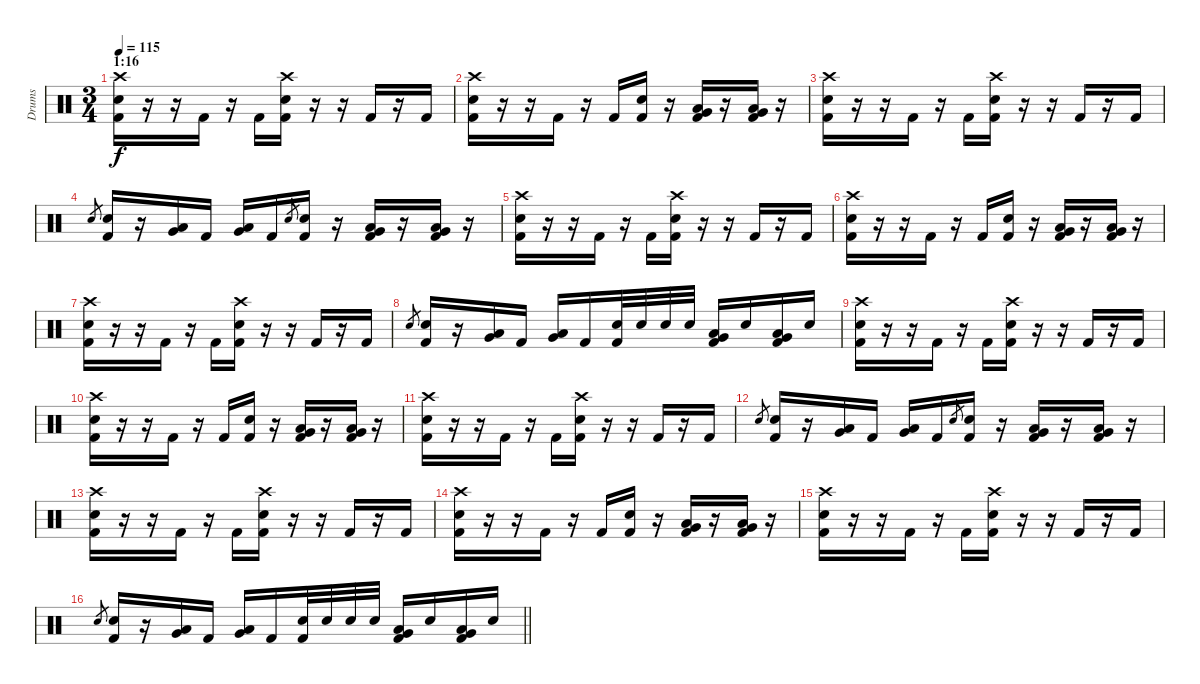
\track ("Drums" "Drums") {instrument percussion}
\staff {score}
\articulation defaults
\ts (3 4)
\section ("" "1:16")
\tempo 115
\clef neutral
\ks c
("Crash high (hit)" "Electric Snare (hit)" "Kick (hit) 2").16{dy f} r.16 r.16 "Kick (hit) 2".16 r.16 "Kick (hit) 2".16 ("Crash high (hit)" "Electric Snare (hit)" "Kick (hit) 2").16 r.16 r.16 "Kick (hit) 2".16 r.16 "Kick (hit) 2".16 |
("Crash high (hit)" "Electric Snare (hit)" "Kick (hit) 2").16 r.16 r.16 "Kick (hit) 2".16 r.16 "Kick (hit) 2".16 ("Electric Snare (hit)" "Kick (hit) 2").16 r.16 ("Low Tom (hit)" "Very Low Tom (hit)" "Kick (hit) 2").16 r.16 ("Very Low Tom (hit)" "Low Floor Tom (hit)" "Kick (hit) 2").16 r.16 |
("Crash high (hit)" "Electric Snare (hit)" "Kick (hit) 2").16 r.16 r.16 "Kick (hit) 2".16 r.16 "Kick (hit) 2".16 ("Crash high (hit)" "Electric Snare (hit)" "Kick (hit) 2").16 r.16 r.16 "Kick (hit) 2".16 r.16 "Kick (hit) 2".16 |
"Electric Snare (hit)".8{gr} ("Electric Snare (hit)" "Kick (hit) 2").16 r.16 ("Low Tom (hit)" "Very Low Tom (hit)").16 "Kick (hit) 2".16 ("Low Floor Tom (hit)" "Very Low Tom (hit)").16 "Kick (hit) 2".16 "Electric Snare (hit)".8{gr} ("Electric Snare (hit)" "Kick (hit) 2").16 r.16 ("Low Tom (hit)" "Very Low Tom (hit)" "Kick (hit) 2").16 r.16 ("Very Low Tom (hit)" "Low Floor Tom (hit)" "Kick (hit) 2").16 r.16 |
("Crash high (hit)" "Electric Snare (hit)" "Kick (hit) 2").16 r.16 r.16 "Kick (hit) 2".16 r.16 "Kick (hit) 2".16 ("Crash high (hit)" "Electric Snare (hit)" "Kick (hit) 2").16 r.16 r.16 "Kick (hit) 2".16 r.16 "Kick (hit) 2".16 |
("Crash high (hit)" "Electric Snare (hit)" "Kick (hit) 2").16 r.16 r.16 "Kick (hit) 2".16 r.16 "Kick (hit) 2".16 ("Electric Snare (hit)" "Kick (hit) 2").16 r.16 ("Low Tom (hit)" "Very Low Tom (hit)" "Kick (hit) 2").16 r.16 ("Very Low Tom (hit)" "Low Floor Tom (hit)" "Kick (hit) 2").16 r.16 |
("Crash high (hit)" "Electric Snare (hit)" "Kick (hit) 2").16 r.16 r.16 "Kick (hit) 2".16 r.16 "Kick (hit) 2".16 ("Crash high (hit)" "Electric Snare (hit)" "Kick (hit) 2").16 r.16 r.16 "Kick (hit) 2".16 r.16 "Kick (hit) 2".16 |
"Electric Snare (hit)".8{gr} ("Electric Snare (hit)" "Kick (hit) 2").16 r.16 ("Low Tom (hit)" "Very Low Tom (hit)").16 "Kick (hit) 2".16 ("Low Floor Tom (hit)" "Very Low Tom (hit)").16 "Kick (hit) 2".16 ("Electric Snare (hit)" "Kick (hit) 2").32 "Electric Snare (hit)".32 "Electric Snare (hit)".32 "Electric Snare (hit)".32 ("Low Tom (hit)" "Very Low Tom (hit)" "Kick (hit) 2").16 "Electric Snare (hit)".16 ("Very Low Tom (hit)" "Low Floor Tom (hit)" "Kick (hit) 2").16 "Electric Snare (hit)".16 |
("Crash high (hit)" "Electric Snare (hit)" "Kick (hit) 2").16 r.16 r.16 "Kick (hit) 2".16 r.16 "Kick (hit) 2".16 ("Crash high (hit)" "Electric Snare (hit)" "Kick (hit) 2").16 r.16 r.16 "Kick (hit) 2".16 r.16 "Kick (hit) 2".16 |
("Crash high (hit)" "Electric Snare (hit)" "Kick (hit) 2").16 r.16 r.16 "Kick (hit) 2".16 r.16 "Kick (hit) 2".16 ("Electric Snare (hit)" "Kick (hit) 2").16 r.16 ("Low Tom (hit)" "Very Low Tom (hit)" "Kick (hit) 2").16 r.16 ("Very Low Tom (hit)" "Low Floor Tom (hit)" "Kick (hit) 2").16 r.16 |
("Crash high (hit)" "Electric Snare (hit)" "Kick (hit) 2").16 r.16 r.16 "Kick (hit) 2".16 r.16 "Kick (hit) 2".16 ("Crash high (hit)" "Electric Snare (hit)" "Kick (hit) 2").16 r.16 r.16 "Kick (hit) 2".16 r.16 "Kick (hit) 2".16 |
"Electric Snare (hit)".8{gr} ("Electric Snare (hit)" "Kick (hit) 2").16 r.16 ("Low Tom (hit)" "Very Low Tom (hit)").16 "Kick (hit) 2".16 ("Low Floor Tom (hit)" "Very Low Tom (hit)").16 "Kick (hit) 2".16 "Electric Snare (hit)".8{gr} ("Electric Snare (hit)" "Kick (hit) 2").16 r.16 ("Low Tom (hit)" "Very Low Tom (hit)" "Kick (hit) 2").16 r.16 ("Very Low Tom (hit)" "Low Floor Tom (hit)" "Kick (hit) 2").16 r.16 |
("Crash high (hit)" "Electric Snare (hit)" "Kick (hit) 2").16 r.16 r.16 "Kick (hit) 2".16 r.16 "Kick (hit) 2".16 ("Crash high (hit)" "Electric Snare (hit)" "Kick (hit) 2").16 r.16 r.16 "Kick (hit) 2".16 r.16 "Kick (hit) 2".16 |
("Crash high (hit)" "Electric Snare (hit)" "Kick (hit) 2").16 r.16 r.16 "Kick (hit) 2".16 r.16 "Kick (hit) 2".16 ("Electric Snare (hit)" "Kick (hit) 2").16 r.16 ("Low Tom (hit)" "Very Low Tom (hit)" "Kick (hit) 2").16 r.16 ("Very Low Tom (hit)" "Low Floor Tom (hit)" "Kick (hit) 2").16 r.16 |
("Crash high (hit)" "Electric Snare (hit)" "Kick (hit) 2").16 r.16 r.16 "Kick (hit) 2".16 r.16 "Kick (hit) 2".16 ("Crash high (hit)" "Electric Snare (hit)" "Kick (hit) 2").16 r.16 r.16 "Kick (hit) 2".16 r.16 "Kick (hit) 2".16 |
\barLineRight lightlight "Electric Snare (hit)".8{gr}
("Electric Snare (hit)" "Kick (hit) 2").16 r.16 ("Low Tom (hit)" "Very Low Tom (hit)").16 "Kick (hit) 2".16 ("Low Floor Tom (hit)" "Very Low Tom (hit)").16 "Kick (hit) 2".16 ("Electric Snare (hit)" "Kick (hit) 2").32 "Electric Snare (hit)".32 "Electric Snare (hit)".32 "Electric Snare (hit)".32 ("Low Tom (hit)" "Very Low Tom (hit)" "Kick (hit) 2").16 "Electric Snare (hit)".16 ("Very Low Tom (hit)" "Low Floor Tom (hit)" "Kick (hit) 2").16 "Electric Snare (hit)".16
